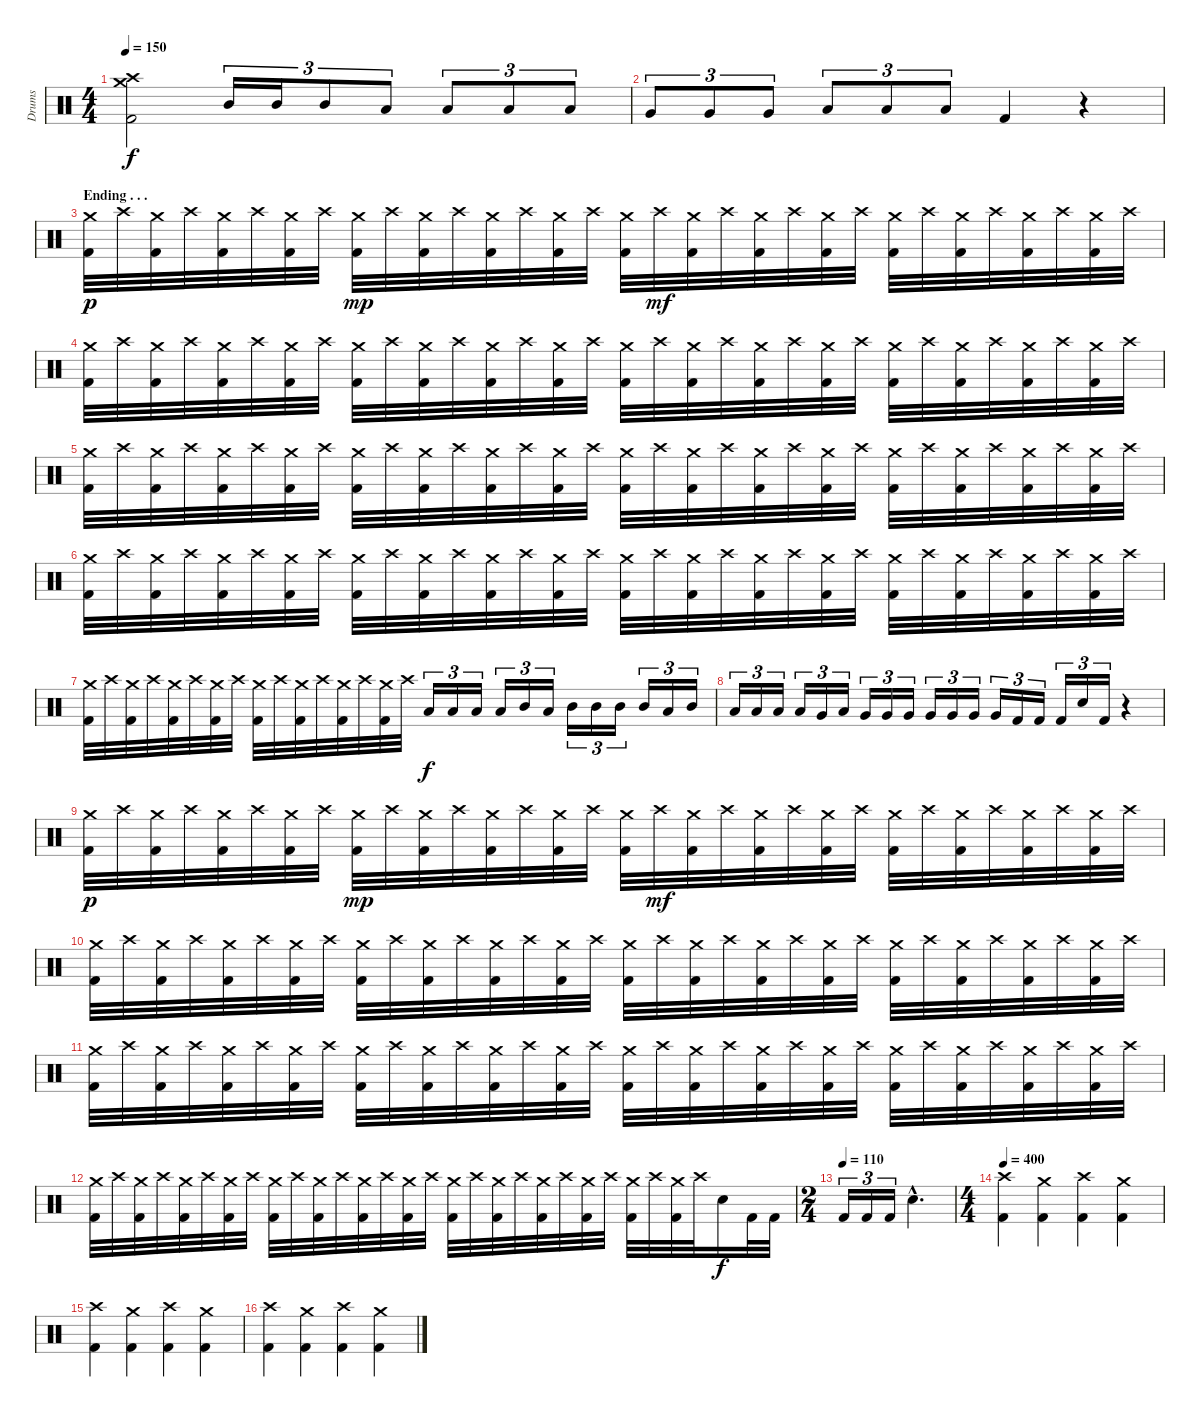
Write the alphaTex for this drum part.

\track ("Drums" "Drums") {instrument percussion}
\staff {score}
\articulation defaults
\ts (4 4)
\tempo 150
\clef neutral
\ks c
("Kick (hit) 2" "Crash medium (hit)" "Crash high (hit)").2{dy f} "Mid Tom (hit)".16{tu (3 2)} "Mid Tom (hit)".16{tu (3 2)} "Mid Tom (hit)".8{tu (3 2)} "Low Tom (hit)".8{tu (3 2)} "Low Tom (hit)".8{tu (3 2)} "Low Tom (hit)".8{tu (3 2)} "Low Tom (hit)".8{tu (3 2)} |
"Very Low Tom (hit)".8{tu (3 2)} "Very Low Tom (hit)".8{tu (3 2)} "Very Low Tom (hit)".8{tu (3 2)} "Low Floor Tom (hit)".8{tu (3 2)} "Low Floor Tom (hit)".8{tu (3 2)} "Low Floor Tom (hit)".8{tu (3 2)} "Kick (hit) 2".4 r.4 |
\section ("" "Ending . . .")
("Kick (hit) 2" "Crash medium (hit)").32{dy p} "Crash high (hit)".32 ("Kick (hit) 2" "Crash medium (hit)").32 "Crash high (hit)".32 ("Kick (hit) 2" "Crash medium (hit)").32 "Crash high (hit)".32 ("Kick (hit) 2" "Crash medium (hit)").32 "Crash high (hit)".32 ("Kick (hit) 2" "Crash medium (hit)").32{dy mp} "Crash high (hit)".32 ("Kick (hit) 2" "Crash medium (hit)").32 "Crash high (hit)".32 ("Kick (hit) 2" "Crash medium (hit)").32 "Crash high (hit)".32 ("Kick (hit) 2" "Crash medium (hit)").32 "Crash high (hit)".32 ("Kick (hit) 2" "Crash medium (hit)").32 "Crash high (hit)".32{dy mf} ("Kick (hit) 2" "Crash medium (hit)").32 "Crash high (hit)".32 ("Kick (hit) 2" "Crash medium (hit)").32 "Crash high (hit)".32 ("Kick (hit) 2" "Crash medium (hit)").32 "Crash high (hit)".32 ("Kick (hit) 2" "Crash medium (hit)").32 "Crash high (hit)".32 ("Kick (hit) 2" "Crash medium (hit)").32 "Crash high (hit)".32 ("Kick (hit) 2" "Crash medium (hit)").32 "Crash high (hit)".32 ("Kick (hit) 2" "Crash medium (hit)").32 "Crash high (hit)".32 |
("Kick (hit) 2" "Crash medium (hit)").32 "Crash high (hit)".32 ("Kick (hit) 2" "Crash medium (hit)").32 "Crash high (hit)".32 ("Kick (hit) 2" "Crash medium (hit)").32 "Crash high (hit)".32 ("Kick (hit) 2" "Crash medium (hit)").32 "Crash high (hit)".32 ("Kick (hit) 2" "Crash medium (hit)").32 "Crash high (hit)".32 ("Kick (hit) 2" "Crash medium (hit)").32 "Crash high (hit)".32 ("Kick (hit) 2" "Crash medium (hit)").32 "Crash high (hit)".32 ("Kick (hit) 2" "Crash medium (hit)").32 "Crash high (hit)".32 ("Kick (hit) 2" "Crash medium (hit)").32 "Crash high (hit)".32 ("Kick (hit) 2" "Crash medium (hit)").32 "Crash high (hit)".32 ("Kick (hit) 2" "Crash medium (hit)").32 "Crash high (hit)".32 ("Kick (hit) 2" "Crash medium (hit)").32 "Crash high (hit)".32 ("Kick (hit) 2" "Crash medium (hit)").32 "Crash high (hit)".32 ("Kick (hit) 2" "Crash medium (hit)").32 "Crash high (hit)".32 ("Kick (hit) 2" "Crash medium (hit)").32 "Crash high (hit)".32 ("Kick (hit) 2" "Crash medium (hit)").32 "Crash high (hit)".32 |
("Kick (hit) 2" "Crash medium (hit)").32 "Crash high (hit)".32 ("Kick (hit) 2" "Crash medium (hit)").32 "Crash high (hit)".32 ("Kick (hit) 2" "Crash medium (hit)").32 "Crash high (hit)".32 ("Kick (hit) 2" "Crash medium (hit)").32 "Crash high (hit)".32 ("Kick (hit) 2" "Crash medium (hit)").32 "Crash high (hit)".32 ("Kick (hit) 2" "Crash medium (hit)").32 "Crash high (hit)".32 ("Kick (hit) 2" "Crash medium (hit)").32 "Crash high (hit)".32 ("Kick (hit) 2" "Crash medium (hit)").32 "Crash high (hit)".32 ("Kick (hit) 2" "Crash medium (hit)").32 "Crash high (hit)".32 ("Kick (hit) 2" "Crash medium (hit)").32 "Crash high (hit)".32 ("Kick (hit) 2" "Crash medium (hit)").32 "Crash high (hit)".32 ("Kick (hit) 2" "Crash medium (hit)").32 "Crash high (hit)".32 ("Kick (hit) 2" "Crash medium (hit)").32 "Crash high (hit)".32 ("Kick (hit) 2" "Crash medium (hit)").32 "Crash high (hit)".32 ("Kick (hit) 2" "Crash medium (hit)").32 "Crash high (hit)".32 ("Kick (hit) 2" "Crash medium (hit)").32 "Crash high (hit)".32 |
("Kick (hit) 2" "Crash medium (hit)").32 "Crash high (hit)".32 ("Kick (hit) 2" "Crash medium (hit)").32 "Crash high (hit)".32 ("Kick (hit) 2" "Crash medium (hit)").32 "Crash high (hit)".32 ("Kick (hit) 2" "Crash medium (hit)").32 "Crash high (hit)".32 ("Kick (hit) 2" "Crash medium (hit)").32 "Crash high (hit)".32 ("Kick (hit) 2" "Crash medium (hit)").32 "Crash high (hit)".32 ("Kick (hit) 2" "Crash medium (hit)").32 "Crash high (hit)".32 ("Kick (hit) 2" "Crash medium (hit)").32 "Crash high (hit)".32 ("Kick (hit) 2" "Crash medium (hit)").32 "Crash high (hit)".32 ("Kick (hit) 2" "Crash medium (hit)").32 "Crash high (hit)".32 ("Kick (hit) 2" "Crash medium (hit)").32 "Crash high (hit)".32 ("Kick (hit) 2" "Crash medium (hit)").32 "Crash high (hit)".32 ("Kick (hit) 2" "Crash medium (hit)").32 "Crash high (hit)".32 ("Kick (hit) 2" "Crash medium (hit)").32 "Crash high (hit)".32 ("Kick (hit) 2" "Crash medium (hit)").32 "Crash high (hit)".32 ("Kick (hit) 2" "Crash medium (hit)").32 "Crash high (hit)".32 |
("Kick (hit) 2" "Crash medium (hit)").32 "Crash high (hit)".32 ("Kick (hit) 2" "Crash medium (hit)").32 "Crash high (hit)".32 ("Kick (hit) 2" "Crash medium (hit)").32 "Crash high (hit)".32 ("Kick (hit) 2" "Crash medium (hit)").32 "Crash high (hit)".32 ("Kick (hit) 2" "Crash medium (hit)").32 "Crash high (hit)".32 ("Kick (hit) 2" "Crash medium (hit)").32 "Crash high (hit)".32 ("Kick (hit) 2" "Crash medium (hit)").32 "Crash high (hit)".32 ("Kick (hit) 2" "Crash medium (hit)").32 "Crash high (hit)".32 "Low Tom (hit)".16{tu (3 2) dy f} "Low Tom (hit)".16{tu (3 2)} "Low Tom (hit)".16{tu (3 2)} "Low Tom (hit)".16{tu (3 2)} "Mid Tom (hit)".16{tu (3 2)} "Low Tom (hit)".16{tu (3 2)} "Mid Tom (hit)".16{tu (3 2)} "Mid Tom (hit)".16{tu (3 2)} "Mid Tom (hit)".16{tu (3 2)} "Mid Tom (hit)".16{tu (3 2)} "Low Tom (hit)".16{tu (3 2)} "Mid Tom (hit)".16{tu (3 2)} |
"Low Tom (hit)".16{tu (3 2)} "Low Tom (hit)".16{tu (3 2)} "Low Tom (hit)".16{tu (3 2)} "Low Tom (hit)".16{tu (3 2)} "Very Low Tom (hit)".16{tu (3 2)} "Low Tom (hit)".16{tu (3 2)} "Very Low Tom (hit)".16{tu (3 2)} "Very Low Tom (hit)".16{tu (3 2)} "Very Low Tom (hit)".16{tu (3 2)} "Very Low Tom (hit)".16{tu (3 2)} "Very Low Tom (hit)".16{tu (3 2)} "Very Low Tom (hit)".16{tu (3 2)} "Very Low Tom (hit)".16{tu (3 2)} "Kick (hit) 2".16{tu (3 2)} "Kick (hit) 2".16{tu (3 2)} "Kick (hit) 2".16{tu (3 2)} "Snare (hit) 2".16{tu (3 2)} "Kick (hit) 2".16{tu (3 2)} r.4 |
("Kick (hit) 2" "Crash medium (hit)").32{dy p} "Crash high (hit)".32 ("Kick (hit) 2" "Crash medium (hit)").32 "Crash high (hit)".32 ("Kick (hit) 2" "Crash medium (hit)").32 "Crash high (hit)".32 ("Kick (hit) 2" "Crash medium (hit)").32 "Crash high (hit)".32 ("Kick (hit) 2" "Crash medium (hit)").32{dy mp} "Crash high (hit)".32 ("Kick (hit) 2" "Crash medium (hit)").32 "Crash high (hit)".32 ("Kick (hit) 2" "Crash medium (hit)").32 "Crash high (hit)".32 ("Kick (hit) 2" "Crash medium (hit)").32 "Crash high (hit)".32 ("Kick (hit) 2" "Crash medium (hit)").32 "Crash high (hit)".32{dy mf} ("Kick (hit) 2" "Crash medium (hit)").32 "Crash high (hit)".32 ("Kick (hit) 2" "Crash medium (hit)").32 "Crash high (hit)".32 ("Kick (hit) 2" "Crash medium (hit)").32 "Crash high (hit)".32 ("Kick (hit) 2" "Crash medium (hit)").32 "Crash high (hit)".32 ("Kick (hit) 2" "Crash medium (hit)").32 "Crash high (hit)".32 ("Kick (hit) 2" "Crash medium (hit)").32 "Crash high (hit)".32 ("Kick (hit) 2" "Crash medium (hit)").32 "Crash high (hit)".32 |
("Kick (hit) 2" "Crash medium (hit)").32 "Crash high (hit)".32 ("Kick (hit) 2" "Crash medium (hit)").32 "Crash high (hit)".32 ("Kick (hit) 2" "Crash medium (hit)").32 "Crash high (hit)".32 ("Kick (hit) 2" "Crash medium (hit)").32 "Crash high (hit)".32 ("Kick (hit) 2" "Crash medium (hit)").32 "Crash high (hit)".32 ("Kick (hit) 2" "Crash medium (hit)").32 "Crash high (hit)".32 ("Kick (hit) 2" "Crash medium (hit)").32 "Crash high (hit)".32 ("Kick (hit) 2" "Crash medium (hit)").32 "Crash high (hit)".32 ("Kick (hit) 2" "Crash medium (hit)").32 "Crash high (hit)".32 ("Kick (hit) 2" "Crash medium (hit)").32 "Crash high (hit)".32 ("Kick (hit) 2" "Crash medium (hit)").32 "Crash high (hit)".32 ("Kick (hit) 2" "Crash medium (hit)").32 "Crash high (hit)".32 ("Kick (hit) 2" "Crash medium (hit)").32 "Crash high (hit)".32 ("Kick (hit) 2" "Crash medium (hit)").32 "Crash high (hit)".32 ("Kick (hit) 2" "Crash medium (hit)").32 "Crash high (hit)".32 ("Kick (hit) 2" "Crash medium (hit)").32 "Crash high (hit)".32 |
("Kick (hit) 2" "Crash medium (hit)").32 "Crash high (hit)".32 ("Kick (hit) 2" "Crash medium (hit)").32 "Crash high (hit)".32 ("Kick (hit) 2" "Crash medium (hit)").32 "Crash high (hit)".32 ("Kick (hit) 2" "Crash medium (hit)").32 "Crash high (hit)".32 ("Kick (hit) 2" "Crash medium (hit)").32 "Crash high (hit)".32 ("Kick (hit) 2" "Crash medium (hit)").32 "Crash high (hit)".32 ("Kick (hit) 2" "Crash medium (hit)").32 "Crash high (hit)".32 ("Kick (hit) 2" "Crash medium (hit)").32 "Crash high (hit)".32 ("Kick (hit) 2" "Crash medium (hit)").32 "Crash high (hit)".32 ("Kick (hit) 2" "Crash medium (hit)").32 "Crash high (hit)".32 ("Kick (hit) 2" "Crash medium (hit)").32 "Crash high (hit)".32 ("Kick (hit) 2" "Crash medium (hit)").32 "Crash high (hit)".32 ("Kick (hit) 2" "Crash medium (hit)").32 "Crash high (hit)".32 ("Kick (hit) 2" "Crash medium (hit)").32 "Crash high (hit)".32 ("Kick (hit) 2" "Crash medium (hit)").32 "Crash high (hit)".32 ("Kick (hit) 2" "Crash medium (hit)").32 "Crash high (hit)".32 |
("Kick (hit) 2" "Crash medium (hit)").32 "Crash high (hit)".32 ("Kick (hit) 2" "Crash medium (hit)").32 "Crash high (hit)".32 ("Kick (hit) 2" "Crash medium (hit)").32 "Crash high (hit)".32 ("Kick (hit) 2" "Crash medium (hit)").32 "Crash high (hit)".32 ("Kick (hit) 2" "Crash medium (hit)").32 "Crash high (hit)".32 ("Kick (hit) 2" "Crash medium (hit)").32 "Crash high (hit)".32 ("Kick (hit) 2" "Crash medium (hit)").32 "Crash high (hit)".32 ("Kick (hit) 2" "Crash medium (hit)").32 "Crash high (hit)".32 ("Kick (hit) 2" "Crash medium (hit)").32 "Crash high (hit)".32 ("Kick (hit) 2" "Crash medium (hit)").32 "Crash high (hit)".32 ("Kick (hit) 2" "Crash medium (hit)").32 "Crash high (hit)".32 ("Kick (hit) 2" "Crash medium (hit)").32 "Crash high (hit)".32 ("Kick (hit) 2" "Crash medium (hit)").32 "Crash high (hit)".32 ("Kick (hit) 2" "Crash medium (hit)").32 "Crash high (hit)".32 "Snare (hit) 2".16{dy f} "Kick (hit) 2".32 "Kick (hit) 2".32 |
\ts (2 4)
\tempo (110)
"Kick (hit) 2".16{tu (3 2)} "Kick (hit) 2".16{tu (3 2)} "Kick (hit) 2".16{tu (3 2)} "Snare (hit) 2"{hac}.4{d} |
\ts (4 4)
\tempo 400
("Kick (hit) 2" "Crash high (hit)").4 ("Kick (hit) 2" "Crash medium (hit)").4 ("Kick (hit) 2" "Crash high (hit)").4 ("Kick (hit) 2" "Crash medium (hit)").4 |
("Kick (hit) 2" "Crash high (hit)").4 ("Kick (hit) 2" "Crash medium (hit)").4 ("Kick (hit) 2" "Crash high (hit)").4 ("Kick (hit) 2" "Crash medium (hit)").4 |
("Kick (hit) 2" "Crash high (hit)").4 ("Kick (hit) 2" "Crash medium (hit)").4 ("Kick (hit) 2" "Crash high (hit)").4 ("Kick (hit) 2" "Crash medium (hit)").4
